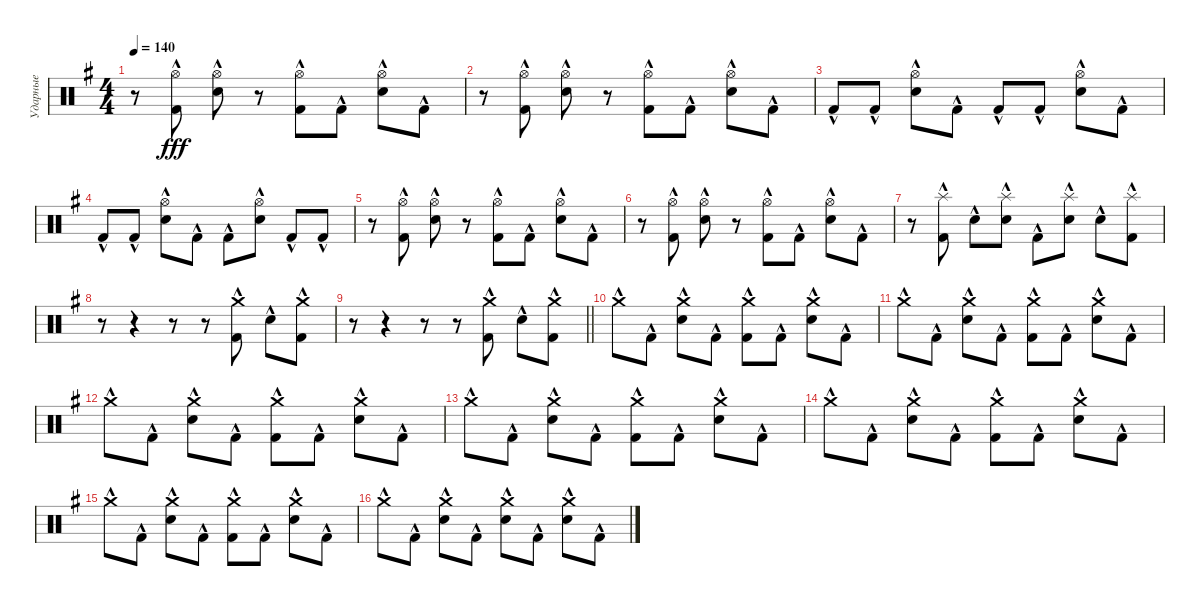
\track ("Ударные" "Ударные") {instrument percussion}
\staff {score}
\articulation defaults
\ts (4 4)
\tempo 140
\clef neutral
\ks g
r.8{dy fff} ("Hi-Hat (open)"{hac} "Kick (hit) 2"{hac}).8 ("Hi-Hat (open)"{hac} "Electric Snare (hit)"{hac}).8 r.8 ("Hi-Hat (open)"{hac} "Kick (hit) 2"{hac}).8 "Kick (hit) 2"{hac}.8 ("Hi-Hat (open)"{hac} "Electric Snare (hit)"{hac}).8 "Kick (hit) 2"{hac}.8 |
r.8 ("Hi-Hat (open)"{hac} "Kick (hit) 2"{hac}).8 ("Hi-Hat (open)"{hac} "Electric Snare (hit)"{hac}).8 r.8 ("Hi-Hat (open)"{hac} "Kick (hit) 2"{hac}).8 "Kick (hit) 2"{hac}.8 ("Hi-Hat (open)"{hac} "Electric Snare (hit)"{hac}).8 "Kick (hit) 2"{hac}.8 |
"Kick (hit) 2"{hac}.8 "Kick (hit) 2"{hac}.8 ("Hi-Hat (open)"{hac} "Electric Snare (hit)"{hac}).8 "Kick (hit) 2"{hac}.8 "Kick (hit) 2"{hac}.8 "Kick (hit) 2"{hac}.8 ("Hi-Hat (open)"{hac} "Electric Snare (hit)"{hac}).8 "Kick (hit) 2"{hac}.8 |
"Kick (hit) 2"{hac}.8 "Kick (hit) 2"{hac}.8 ("Hi-Hat (open)"{hac} "Electric Snare (hit)"{hac}).8 "Kick (hit) 2"{hac}.8 "Kick (hit) 2"{hac}.8 ("Hi-Hat (open)"{hac} "Electric Snare (hit)"{hac}).8 "Kick (hit) 2"{hac}.8 "Kick (hit) 2"{hac}.8 |
r.8 ("Hi-Hat (open)"{hac} "Kick (hit) 2"{hac}).8 ("Hi-Hat (open)"{hac} "Electric Snare (hit)"{hac}).8 r.8 ("Hi-Hat (open)"{hac} "Kick (hit) 2"{hac}).8 "Kick (hit) 2"{hac}.8 ("Hi-Hat (open)"{hac} "Electric Snare (hit)"{hac}).8 "Kick (hit) 2"{hac}.8 |
r.8 ("Hi-Hat (open)"{hac} "Kick (hit) 2"{hac}).8 ("Hi-Hat (open)"{hac} "Electric Snare (hit)"{hac}).8 r.8 ("Hi-Hat (open)"{hac} "Kick (hit) 2"{hac}).8 "Kick (hit) 2"{hac}.8 ("Hi-Hat (open)"{hac} "Electric Snare (hit)"{hac}).8 "Kick (hit) 2"{hac}.8 |
r.8 ("Splash (hit)"{hac} "Kick (hit) 2"{hac}).8 "Electric Snare (hit)"{hac}.8 ("Splash (hit)"{hac} "Electric Snare (hit)"{hac}).8 "Kick (hit) 2"{hac}.8 ("Splash (hit)"{hac} "Electric Snare (hit)"{hac}).8 "Electric Snare (hit)"{hac}.8 ("Splash (hit)"{hac} "Kick (hit) 2"{hac}).8 |
r.8 r.4 r.8 r.8 ("Crash medium (hit)"{hac} "Kick (hit) 2"{hac}).8 "Electric Snare (hit)"{hac}.8 ("Crash medium (hit)"{hac} "Kick (hit) 2"{hac}).8 |
\barLineRight lightlight
r.8 r.4 r.8 r.8 ("Crash medium (hit)"{hac} "Kick (hit) 2"{hac}).8 "Electric Snare (hit)"{hac}.8 ("Crash medium (hit)"{hac} "Kick (hit) 2"{hac}).8 |
"Crash medium (hit)"{hac}.8 "Kick (hit) 2"{hac}.8 ("Crash medium (hit)"{hac} "Electric Snare (hit)"{hac}).8 "Kick (hit) 2"{hac}.8 ("Crash medium (hit)"{hac} "Kick (hit) 2"{hac}).8 "Kick (hit) 2"{hac}.8 ("Crash medium (hit)"{hac} "Electric Snare (hit)"{hac}).8 "Kick (hit) 2"{hac}.8 |
"Crash medium (hit)"{hac}.8 "Kick (hit) 2"{hac}.8 ("Crash medium (hit)"{hac} "Electric Snare (hit)"{hac}).8 "Kick (hit) 2"{hac}.8 ("Crash medium (hit)"{hac} "Kick (hit) 2"{hac}).8 "Kick (hit) 2"{hac}.8 ("Crash medium (hit)"{hac} "Electric Snare (hit)"{hac}).8 "Kick (hit) 2"{hac}.8 |
"Crash medium (hit)"{hac}.8 "Kick (hit) 2"{hac}.8 ("Crash medium (hit)"{hac} "Electric Snare (hit)"{hac}).8 "Kick (hit) 2"{hac}.8 ("Crash medium (hit)"{hac} "Kick (hit) 2"{hac}).8 "Kick (hit) 2"{hac}.8 ("Crash medium (hit)"{hac} "Electric Snare (hit)"{hac}).8 "Kick (hit) 2"{hac}.8 |
"Crash medium (hit)"{hac}.8 "Kick (hit) 2"{hac}.8 ("Crash medium (hit)"{hac} "Electric Snare (hit)"{hac}).8 "Kick (hit) 2"{hac}.8 ("Crash medium (hit)"{hac} "Kick (hit) 2"{hac}).8 "Kick (hit) 2"{hac}.8 ("Crash medium (hit)"{hac} "Electric Snare (hit)"{hac}).8 "Kick (hit) 2"{hac}.8 |
"Crash medium (hit)"{hac}.8 "Kick (hit) 2"{hac}.8 ("Crash medium (hit)"{hac} "Electric Snare (hit)"{hac}).8 "Kick (hit) 2"{hac}.8 ("Crash medium (hit)"{hac} "Kick (hit) 2"{hac}).8 "Kick (hit) 2"{hac}.8 ("Crash medium (hit)"{hac} "Electric Snare (hit)"{hac}).8 "Kick (hit) 2"{hac}.8 |
"Crash medium (hit)"{hac}.8 "Kick (hit) 2"{hac}.8 ("Crash medium (hit)"{hac} "Electric Snare (hit)"{hac}).8 "Kick (hit) 2"{hac}.8 ("Crash medium (hit)"{hac} "Kick (hit) 2"{hac}).8 "Kick (hit) 2"{hac}.8 ("Crash medium (hit)"{hac} "Electric Snare (hit)"{hac}).8 "Kick (hit) 2"{hac}.8 |
"Crash medium (hit)"{hac}.8 "Kick (hit) 2"{hac}.8 ("Crash medium (hit)"{hac} "Electric Snare (hit)"{hac}).8 "Kick (hit) 2"{hac}.8 ("Crash medium (hit)"{hac} "Electric Snare (hit)"{hac}).8 "Kick (hit) 2"{hac}.8 ("Crash medium (hit)"{hac} "Electric Snare (hit)"{hac}).8 "Kick (hit) 2"{hac}.8
